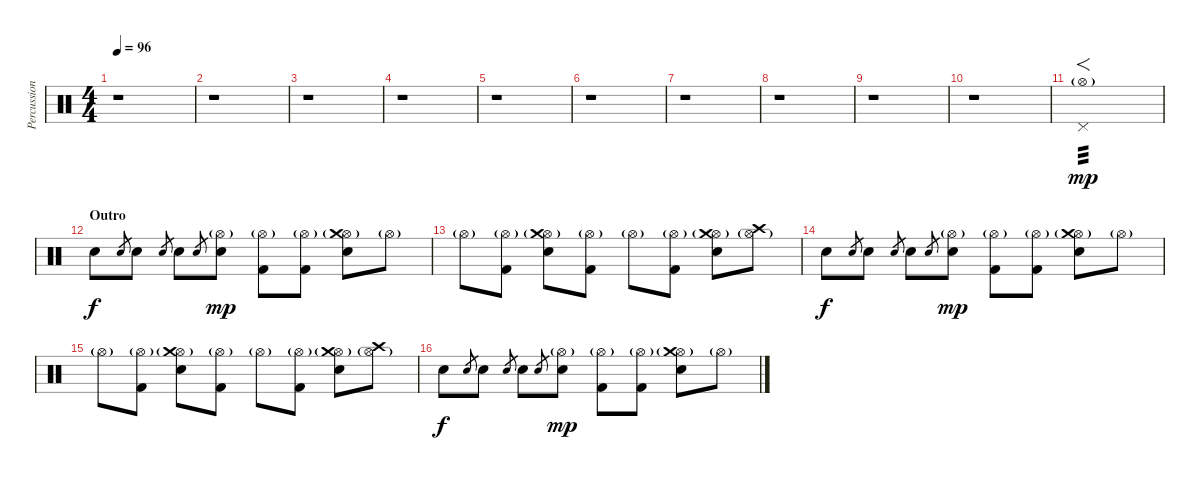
\track ("Percussion" "Percussion") {instrument percussion}
\staff {score}
\articulation defaults
\ts (4 4)
\tempo 96
\clef neutral
\ks c
r.1{dy f} |
r.1 |
r.1 |
r.1 |
r.1 |
r.1 |
r.1 |
r.1 |
r.1 |
r.1 |
("Pedal Hi-Hat (hit)" "Hi-Hat (open)"{g}).1{f tp 3 dy mp} |
\section ("" "Outro")
"Electric Snare (hit)".8{dy f} "Electric Snare (hit)".8{gr} "Electric Snare (hit)".8 "Electric Snare (hit)".8{gr} "Electric Snare (hit)".8 "Electric Snare (hit)".8{gr} ("Hi-Hat (open)"{g} "Electric Snare (hit)").8{dy mp} ("Hi-Hat (open)"{g} "Kick (hit) 2").8 ("Hi-Hat (open)"{g} "Kick (hit) 2").8 ("Hi-Hat (open)"{g} "Crash medium (hit)" "Electric Snare (hit)").8 "Hi-Hat (open)"{g}.8 |
"Hi-Hat (open)"{g}.8 ("Hi-Hat (open)"{g} "Kick (hit) 2").8 ("Hi-Hat (open)"{g} "Crash medium (hit)" "Electric Snare (hit)").8 ("Hi-Hat (open)"{g} "Kick (hit) 2").8 "Hi-Hat (open)"{g}.8 ("Hi-Hat (open)"{g} "Kick (hit) 2").8 ("Hi-Hat (open)"{g} "Crash medium (hit)" "Electric Snare (hit)").8 ("Hi-Hat (open)"{g} "Crash high (hit)").8 |
"Electric Snare (hit)".8{dy f} "Electric Snare (hit)".8{gr} "Electric Snare (hit)".8 "Electric Snare (hit)".8{gr} "Electric Snare (hit)".8 "Electric Snare (hit)".8{gr} ("Hi-Hat (open)"{g} "Electric Snare (hit)").8{dy mp} ("Hi-Hat (open)"{g} "Kick (hit) 2").8 ("Hi-Hat (open)"{g} "Kick (hit) 2").8 ("Hi-Hat (open)"{g} "Crash medium (hit)" "Electric Snare (hit)").8 "Hi-Hat (open)"{g}.8 |
"Hi-Hat (open)"{g}.8 ("Hi-Hat (open)"{g} "Kick (hit) 2").8 ("Hi-Hat (open)"{g} "Crash medium (hit)" "Electric Snare (hit)").8 ("Hi-Hat (open)"{g} "Kick (hit) 2").8 "Hi-Hat (open)"{g}.8 ("Hi-Hat (open)"{g} "Kick (hit) 2").8 ("Hi-Hat (open)"{g} "Crash medium (hit)" "Electric Snare (hit)").8 ("Hi-Hat (open)"{g} "Crash high (hit)").8 |
"Electric Snare (hit)".8{dy f} "Electric Snare (hit)".8{gr} "Electric Snare (hit)".8 "Electric Snare (hit)".8{gr} "Electric Snare (hit)".8 "Electric Snare (hit)".8{gr} ("Hi-Hat (open)"{g} "Electric Snare (hit)").8{dy mp} ("Hi-Hat (open)"{g} "Kick (hit) 2").8 ("Hi-Hat (open)"{g} "Kick (hit) 2").8 ("Hi-Hat (open)"{g} "Crash medium (hit)" "Electric Snare (hit)").8 "Hi-Hat (open)"{g}.8
